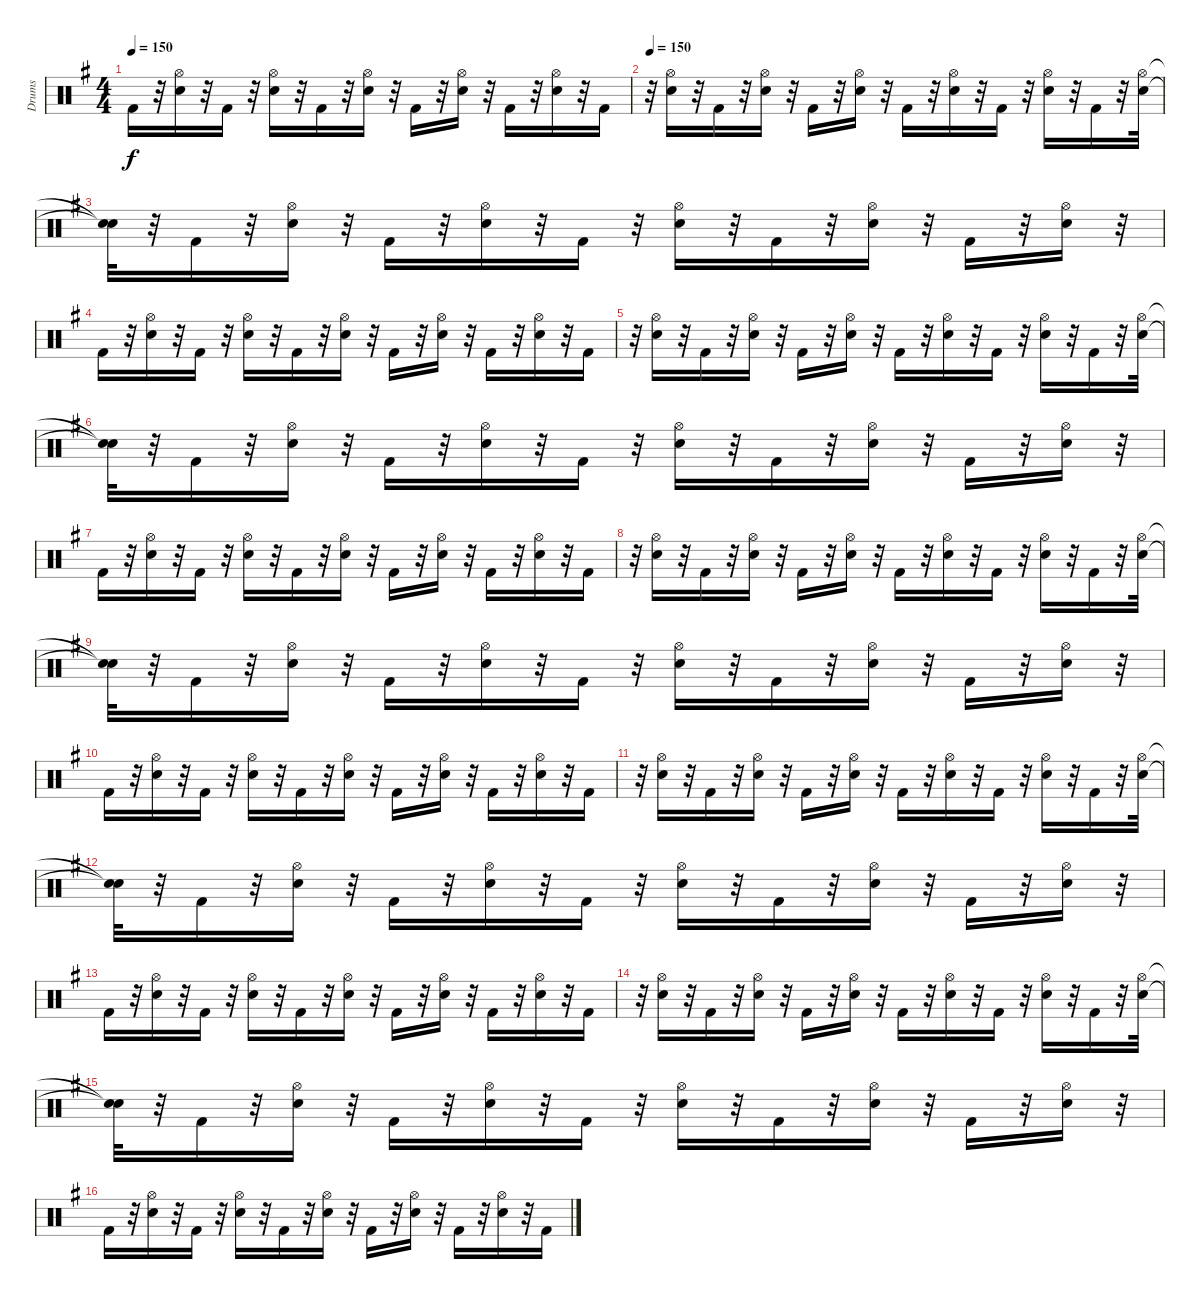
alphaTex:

\track ("Drums" "Drums") {instrument percussion}
\staff {score}
\articulation defaults
\ts (4 4)
\tempo 150
\clef neutral
\ks eminor "Kick (hit) 2".16{dy f}
r.32 ("Hi-Hat (open)" "Snare (hit) 2").16 r.32 "Kick (hit) 2".16 r.32 ("Hi-Hat (open)" "Snare (hit) 2").16 r.32 "Kick (hit) 2".16 r.32 ("Hi-Hat (open)" "Snare (hit) 2").16 r.32 "Kick (hit) 2".16 r.32 ("Hi-Hat (open)" "Snare (hit) 2").16 r.32 "Kick (hit) 2".16 r.32 ("Hi-Hat (open)" "Snare (hit) 2").16 r.32 "Kick (hit) 2".16 |
\tempo 150
r.32 ("Hi-Hat (open)" "Snare (hit) 2").16 r.32 "Kick (hit) 2".16 r.32 ("Hi-Hat (open)" "Snare (hit) 2").16 r.32 "Kick (hit) 2".16 r.32 ("Hi-Hat (open)" "Snare (hit) 2").16 r.32 "Kick (hit) 2".16 r.32 ("Hi-Hat (open)" "Snare (hit) 2").16 r.32 "Kick (hit) 2".16 r.32 ("Hi-Hat (open)" "Snare (hit) 2").16 r.32 "Kick (hit) 2".16 r.32 ("Hi-Hat (open)" "Snare (hit) 2").32 |
("Snare (hit)"{t} "Snare (hit)"{t}).32 r.32 "Kick (hit) 2".16 r.32 ("Hi-Hat (open)" "Snare (hit) 2").16 r.32 "Kick (hit) 2".16 r.32 ("Hi-Hat (open)" "Snare (hit) 2").16 r.32 "Kick (hit) 2".16 r.32 ("Hi-Hat (open)" "Snare (hit) 2").16 r.32 "Kick (hit) 2".16 r.32 ("Hi-Hat (open)" "Snare (hit) 2").16 r.32 "Kick (hit) 2".16 r.32 ("Hi-Hat (open)" "Snare (hit) 2").16 r.32 |
"Kick (hit) 2".16 r.32 ("Hi-Hat (open)" "Snare (hit) 2").16 r.32 "Kick (hit) 2".16 r.32 ("Hi-Hat (open)" "Snare (hit) 2").16 r.32 "Kick (hit) 2".16 r.32 ("Hi-Hat (open)" "Snare (hit) 2").16 r.32 "Kick (hit) 2".16 r.32 ("Hi-Hat (open)" "Snare (hit) 2").16 r.32 "Kick (hit) 2".16 r.32 ("Hi-Hat (open)" "Snare (hit) 2").16 r.32 "Kick (hit) 2".16 |
r.32 ("Hi-Hat (open)" "Snare (hit) 2").16 r.32 "Kick (hit) 2".16 r.32 ("Hi-Hat (open)" "Snare (hit) 2").16 r.32 "Kick (hit) 2".16 r.32 ("Hi-Hat (open)" "Snare (hit) 2").16 r.32 "Kick (hit) 2".16 r.32 ("Hi-Hat (open)" "Snare (hit) 2").16 r.32 "Kick (hit) 2".16 r.32 ("Hi-Hat (open)" "Snare (hit) 2").16 r.32 "Kick (hit) 2".16 r.32 ("Hi-Hat (open)" "Snare (hit) 2").32 |
("Snare (hit)"{t} "Snare (hit)"{t}).32 r.32 "Kick (hit) 2".16 r.32 ("Hi-Hat (open)" "Snare (hit) 2").16 r.32 "Kick (hit) 2".16 r.32 ("Hi-Hat (open)" "Snare (hit) 2").16 r.32 "Kick (hit) 2".16 r.32 ("Hi-Hat (open)" "Snare (hit) 2").16 r.32 "Kick (hit) 2".16 r.32 ("Hi-Hat (open)" "Snare (hit) 2").16 r.32 "Kick (hit) 2".16 r.32 ("Hi-Hat (open)" "Snare (hit) 2").16 r.32 |
"Kick (hit) 2".16 r.32 ("Hi-Hat (open)" "Snare (hit) 2").16 r.32 "Kick (hit) 2".16 r.32 ("Hi-Hat (open)" "Snare (hit) 2").16 r.32 "Kick (hit) 2".16 r.32 ("Hi-Hat (open)" "Snare (hit) 2").16 r.32 "Kick (hit) 2".16 r.32 ("Hi-Hat (open)" "Snare (hit) 2").16 r.32 "Kick (hit) 2".16 r.32 ("Hi-Hat (open)" "Snare (hit) 2").16 r.32 "Kick (hit) 2".16 |
r.32 ("Hi-Hat (open)" "Snare (hit) 2").16 r.32 "Kick (hit) 2".16 r.32 ("Hi-Hat (open)" "Snare (hit) 2").16 r.32 "Kick (hit) 2".16 r.32 ("Hi-Hat (open)" "Snare (hit) 2").16 r.32 "Kick (hit) 2".16 r.32 ("Hi-Hat (open)" "Snare (hit) 2").16 r.32 "Kick (hit) 2".16 r.32 ("Hi-Hat (open)" "Snare (hit) 2").16 r.32 "Kick (hit) 2".16 r.32 ("Hi-Hat (open)" "Snare (hit) 2").32 |
("Snare (hit)"{t} "Snare (hit)"{t}).32 r.32 "Kick (hit) 2".16 r.32 ("Hi-Hat (open)" "Snare (hit) 2").16 r.32 "Kick (hit) 2".16 r.32 ("Hi-Hat (open)" "Snare (hit) 2").16 r.32 "Kick (hit) 2".16 r.32 ("Hi-Hat (open)" "Snare (hit) 2").16 r.32 "Kick (hit) 2".16 r.32 ("Hi-Hat (open)" "Snare (hit) 2").16 r.32 "Kick (hit) 2".16 r.32 ("Hi-Hat (open)" "Snare (hit) 2").16 r.32 |
"Kick (hit) 2".16 r.32 ("Hi-Hat (open)" "Snare (hit) 2").16 r.32 "Kick (hit) 2".16 r.32 ("Hi-Hat (open)" "Snare (hit) 2").16 r.32 "Kick (hit) 2".16 r.32 ("Hi-Hat (open)" "Snare (hit) 2").16 r.32 "Kick (hit) 2".16 r.32 ("Hi-Hat (open)" "Snare (hit) 2").16 r.32 "Kick (hit) 2".16 r.32 ("Hi-Hat (open)" "Snare (hit) 2").16 r.32 "Kick (hit) 2".16 |
r.32 ("Hi-Hat (open)" "Snare (hit) 2").16 r.32 "Kick (hit) 2".16 r.32 ("Hi-Hat (open)" "Snare (hit) 2").16 r.32 "Kick (hit) 2".16 r.32 ("Hi-Hat (open)" "Snare (hit) 2").16 r.32 "Kick (hit) 2".16 r.32 ("Hi-Hat (open)" "Snare (hit) 2").16 r.32 "Kick (hit) 2".16 r.32 ("Hi-Hat (open)" "Snare (hit) 2").16 r.32 "Kick (hit) 2".16 r.32 ("Hi-Hat (open)" "Snare (hit) 2").32 |
("Snare (hit)"{t} "Snare (hit)"{t}).32 r.32 "Kick (hit) 2".16 r.32 ("Hi-Hat (open)" "Snare (hit) 2").16 r.32 "Kick (hit) 2".16 r.32 ("Hi-Hat (open)" "Snare (hit) 2").16 r.32 "Kick (hit) 2".16 r.32 ("Hi-Hat (open)" "Snare (hit) 2").16 r.32 "Kick (hit) 2".16 r.32 ("Hi-Hat (open)" "Snare (hit) 2").16 r.32 "Kick (hit) 2".16 r.32 ("Hi-Hat (open)" "Snare (hit) 2").16 r.32 |
"Kick (hit) 2".16 r.32 ("Hi-Hat (open)" "Snare (hit) 2").16 r.32 "Kick (hit) 2".16 r.32 ("Hi-Hat (open)" "Snare (hit) 2").16 r.32 "Kick (hit) 2".16 r.32 ("Hi-Hat (open)" "Snare (hit) 2").16 r.32 "Kick (hit) 2".16 r.32 ("Hi-Hat (open)" "Snare (hit) 2").16 r.32 "Kick (hit) 2".16 r.32 ("Hi-Hat (open)" "Snare (hit) 2").16 r.32 "Kick (hit) 2".16 |
r.32 ("Hi-Hat (open)" "Snare (hit) 2").16 r.32 "Kick (hit) 2".16 r.32 ("Hi-Hat (open)" "Snare (hit) 2").16 r.32 "Kick (hit) 2".16 r.32 ("Hi-Hat (open)" "Snare (hit) 2").16 r.32 "Kick (hit) 2".16 r.32 ("Hi-Hat (open)" "Snare (hit) 2").16 r.32 "Kick (hit) 2".16 r.32 ("Hi-Hat (open)" "Snare (hit) 2").16 r.32 "Kick (hit) 2".16 r.32 ("Hi-Hat (open)" "Snare (hit) 2").32 |
("Snare (hit)"{t} "Snare (hit)"{t}).32 r.32 "Kick (hit) 2".16 r.32 ("Hi-Hat (open)" "Snare (hit) 2").16 r.32 "Kick (hit) 2".16 r.32 ("Hi-Hat (open)" "Snare (hit) 2").16 r.32 "Kick (hit) 2".16 r.32 ("Hi-Hat (open)" "Snare (hit) 2").16 r.32 "Kick (hit) 2".16 r.32 ("Hi-Hat (open)" "Snare (hit) 2").16 r.32 "Kick (hit) 2".16 r.32 ("Hi-Hat (open)" "Snare (hit) 2").16 r.32 |
"Kick (hit) 2".16 r.32 ("Hi-Hat (open)" "Snare (hit) 2").16 r.32 "Kick (hit) 2".16 r.32 ("Hi-Hat (open)" "Snare (hit) 2").16 r.32 "Kick (hit) 2".16 r.32 ("Hi-Hat (open)" "Snare (hit) 2").16 r.32 "Kick (hit) 2".16 r.32 ("Hi-Hat (open)" "Snare (hit) 2").16 r.32 "Kick (hit) 2".16 r.32 ("Hi-Hat (open)" "Snare (hit) 2").16 r.32 "Kick (hit) 2".16
